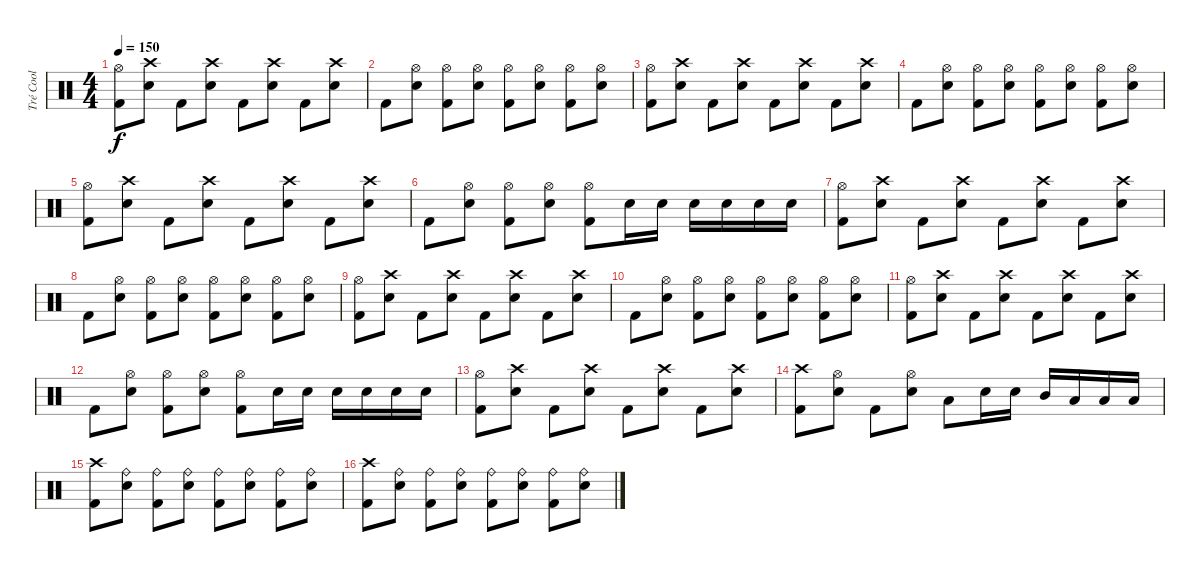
\track ("Tré Cool" "Tré Cool") {instrument percussion}
\staff {score}
\articulation defaults
\ts (4 4)
\tempo 150
\clef neutral
\ks c
("Hi-Hat (open)" "Kick (hit) 2").8{dy f} ("Crash high (hit)" "Electric Snare (hit)").8 "Kick (hit) 2".8 ("Crash high (hit)" "Electric Snare (hit)").8 "Kick (hit) 2".8 ("Crash high (hit)" "Electric Snare (hit)").8 "Kick (hit) 2".8 ("Crash high (hit)" "Electric Snare (hit)").8 |
"Kick (hit) 2".8 ("Hi-Hat (open)" "Electric Snare (hit)").8 ("Hi-Hat (open)" "Kick (hit) 2").8 ("Hi-Hat (open)" "Electric Snare (hit)").8 ("Hi-Hat (open)" "Kick (hit) 2").8 ("Hi-Hat (open)" "Electric Snare (hit)").8 ("Hi-Hat (open)" "Kick (hit) 2").8 ("Hi-Hat (open)" "Electric Snare (hit)").8 |
("Hi-Hat (open)" "Kick (hit) 2").8 ("Crash high (hit)" "Electric Snare (hit)").8 "Kick (hit) 2".8 ("Crash high (hit)" "Electric Snare (hit)").8 "Kick (hit) 2".8 ("Crash high (hit)" "Electric Snare (hit)").8 "Kick (hit) 2".8 ("Crash high (hit)" "Electric Snare (hit)").8 |
"Kick (hit) 2".8 ("Hi-Hat (open)" "Electric Snare (hit)").8 ("Hi-Hat (open)" "Kick (hit) 2").8 ("Hi-Hat (open)" "Electric Snare (hit)").8 ("Hi-Hat (open)" "Kick (hit) 2").8 ("Hi-Hat (open)" "Electric Snare (hit)").8 ("Hi-Hat (open)" "Kick (hit) 2").8 ("Hi-Hat (open)" "Electric Snare (hit)").8 |
("Hi-Hat (open)" "Kick (hit) 2").8 ("Crash high (hit)" "Electric Snare (hit)").8 "Kick (hit) 2".8 ("Crash high (hit)" "Electric Snare (hit)").8 "Kick (hit) 2".8 ("Crash high (hit)" "Electric Snare (hit)").8 "Kick (hit) 2".8 ("Crash high (hit)" "Electric Snare (hit)").8 |
"Kick (hit) 2".8 ("Hi-Hat (open)" "Electric Snare (hit)").8 ("Hi-Hat (open)" "Kick (hit) 2").8 ("Hi-Hat (open)" "Electric Snare (hit)").8 ("Hi-Hat (open)" "Kick (hit) 2").8 "Electric Snare (hit)".16 "Electric Snare (hit)".16 "Electric Snare (hit)".16 "Electric Snare (hit)".16 "Electric Snare (hit)".16 "Electric Snare (hit)".16 |
("Hi-Hat (open)" "Kick (hit) 2").8 ("Crash high (hit)" "Electric Snare (hit)").8 "Kick (hit) 2".8 ("Crash high (hit)" "Electric Snare (hit)").8 "Kick (hit) 2".8 ("Crash high (hit)" "Electric Snare (hit)").8 "Kick (hit) 2".8 ("Crash high (hit)" "Electric Snare (hit)").8 |
"Kick (hit) 2".8 ("Hi-Hat (open)" "Electric Snare (hit)").8 ("Hi-Hat (open)" "Kick (hit) 2").8 ("Hi-Hat (open)" "Electric Snare (hit)").8 ("Hi-Hat (open)" "Kick (hit) 2").8 ("Hi-Hat (open)" "Electric Snare (hit)").8 ("Hi-Hat (open)" "Kick (hit) 2").8 ("Hi-Hat (open)" "Electric Snare (hit)").8 |
("Hi-Hat (open)" "Kick (hit) 2").8 ("Crash high (hit)" "Electric Snare (hit)").8 "Kick (hit) 2".8 ("Crash high (hit)" "Electric Snare (hit)").8 "Kick (hit) 2".8 ("Crash high (hit)" "Electric Snare (hit)").8 "Kick (hit) 2".8 ("Crash high (hit)" "Electric Snare (hit)").8 |
"Kick (hit) 2".8 ("Hi-Hat (open)" "Electric Snare (hit)").8 ("Hi-Hat (open)" "Kick (hit) 2").8 ("Hi-Hat (open)" "Electric Snare (hit)").8 ("Hi-Hat (open)" "Kick (hit) 2").8 ("Hi-Hat (open)" "Electric Snare (hit)").8 ("Hi-Hat (open)" "Kick (hit) 2").8 ("Hi-Hat (open)" "Electric Snare (hit)").8 |
("Hi-Hat (open)" "Kick (hit) 2").8 ("Crash high (hit)" "Electric Snare (hit)").8 "Kick (hit) 2".8 ("Crash high (hit)" "Electric Snare (hit)").8 "Kick (hit) 2".8 ("Crash high (hit)" "Electric Snare (hit)").8 "Kick (hit) 2".8 ("Crash high (hit)" "Electric Snare (hit)").8 |
"Kick (hit) 2".8 ("Hi-Hat (open)" "Electric Snare (hit)").8 ("Hi-Hat (open)" "Kick (hit) 2").8 ("Hi-Hat (open)" "Electric Snare (hit)").8 ("Hi-Hat (open)" "Kick (hit) 2").8 "Electric Snare (hit)".16 "Electric Snare (hit)".16 "Electric Snare (hit)".16 "Electric Snare (hit)".16 "Electric Snare (hit)".16 "Electric Snare (hit)".16 |
("Hi-Hat (open)" "Kick (hit) 2").8 ("Crash high (hit)" "Electric Snare (hit)").8 "Kick (hit) 2".8 ("Crash high (hit)" "Electric Snare (hit)").8 "Kick (hit) 2".8 ("Crash high (hit)" "Electric Snare (hit)").8 "Kick (hit) 2".8 ("Crash high (hit)" "Electric Snare (hit)").8 |
("Crash high (hit)" "Kick (hit) 2").8 ("Hi-Hat (open)" "Electric Snare (hit)").8 "Kick (hit) 2".8 ("Hi-Hat (open)" "Electric Snare (hit)").8 "Low Tom (hit)".8 "Electric Snare (hit)".16 "Electric Snare (hit)".16 "Mid Tom (hit)".16 "Low Tom (hit)".16 "Low Tom (hit)".16 "Low Tom (hit)".16 |
("Crash high (hit)" "Kick (hit) 2").8 ("Ride (bell)" "Electric Snare (hit)").8 ("Ride (bell)" "Kick (hit) 2").8 ("Ride (bell)" "Electric Snare (hit)").8 ("Ride (bell)" "Kick (hit) 2").8 ("Ride (bell)" "Electric Snare (hit)").8 ("Ride (bell)" "Kick (hit) 2").8 ("Ride (bell)" "Electric Snare (hit)").8 |
("Crash high (hit)" "Kick (hit) 2").8 ("Ride (bell)" "Electric Snare (hit)").8 ("Ride (bell)" "Kick (hit) 2").8 ("Ride (bell)" "Electric Snare (hit)").8 ("Ride (bell)" "Kick (hit) 2").8 ("Ride (bell)" "Electric Snare (hit)").8 ("Ride (bell)" "Kick (hit) 2").8 ("Ride (bell)" "Electric Snare (hit)").8
